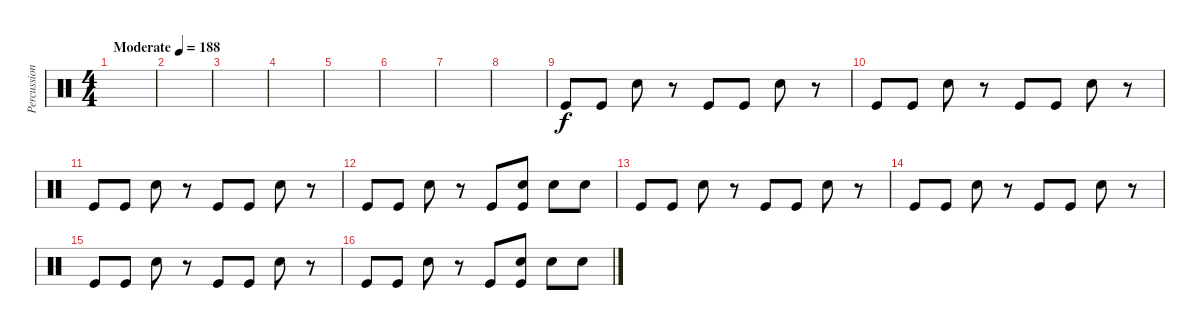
\track ("Percussion" "Percussion") {instrument percussion}
\staff {score}
\articulation defaults
\ts (4 4)
\tempo (188 "Moderate")
\clef neutral
\ks c
|
|
|
|
|
|
|
|
"Kick (hit)".8 "Kick (hit)".8 "Snare (hit) 2".8 r.8 "Kick (hit)".8 "Kick (hit)".8 "Snare (hit) 2".8 r.8 |
"Kick (hit)".8 "Kick (hit)".8 "Snare (hit) 2".8 r.8 "Kick (hit)".8 "Kick (hit)".8 "Snare (hit) 2".8 r.8 |
"Kick (hit)".8 "Kick (hit)".8 "Snare (hit) 2".8 r.8 "Kick (hit)".8 "Kick (hit)".8 "Snare (hit) 2".8 r.8 |
"Kick (hit)".8 "Kick (hit)".8 "Snare (hit) 2".8 r.8 "Kick (hit)".8 ("Snare (hit) 2" "Kick (hit)").8 "Snare (hit) 2".8 "Snare (hit) 2".8 |
"Kick (hit)".8 "Kick (hit)".8 "Snare (hit) 2".8 r.8 "Kick (hit)".8 "Kick (hit)".8 "Snare (hit) 2".8 r.8 |
"Kick (hit)".8 "Kick (hit)".8 "Snare (hit) 2".8 r.8 "Kick (hit)".8 "Kick (hit)".8 "Snare (hit) 2".8 r.8 |
"Kick (hit)".8 "Kick (hit)".8 "Snare (hit) 2".8 r.8 "Kick (hit)".8 "Kick (hit)".8 "Snare (hit) 2".8 r.8 |
"Kick (hit)".8 "Kick (hit)".8 "Snare (hit) 2".8 r.8 "Kick (hit)".8 ("Snare (hit) 2" "Kick (hit)").8 "Snare (hit) 2".8 "Snare (hit) 2".8
